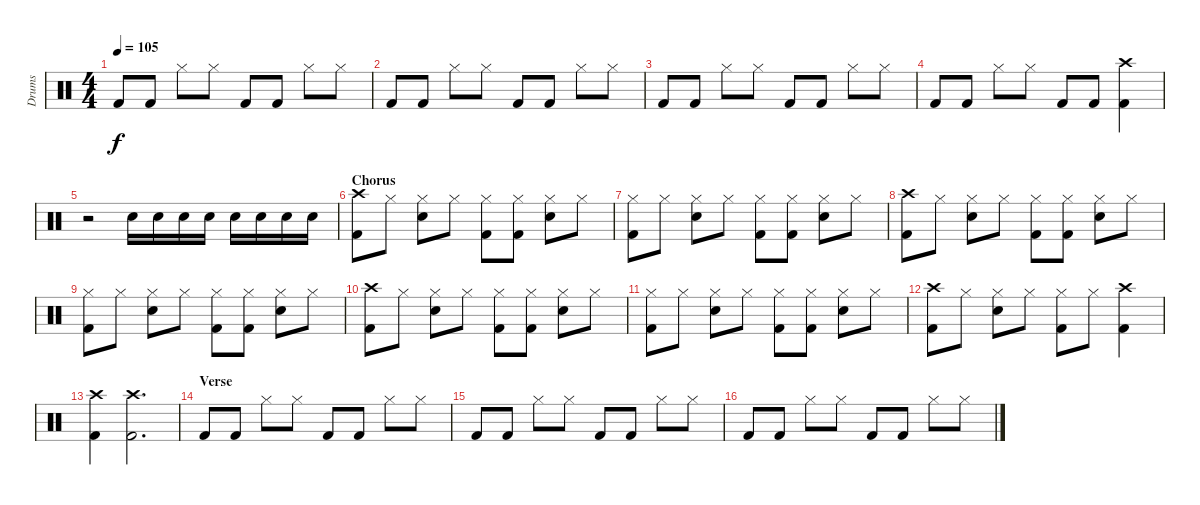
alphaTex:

\track ("Drums" "Drums") {instrument percussion}
\staff {score}
\articulation defaults
\ts (4 4)
\tempo 105
\clef neutral
\ks c "Kick (hit) 2".8{dy f} "Kick (hit) 2".8 "Hi-Hat (closed)".8 "Hi-Hat (closed)".8 "Kick (hit) 2".8 "Kick (hit) 2".8 "Hi-Hat (closed)".8 "Hi-Hat (closed)".8
|
"Kick (hit) 2".8 "Kick (hit) 2".8 "Hi-Hat (closed)".8 "Hi-Hat (closed)".8 "Kick (hit) 2".8 "Kick (hit) 2".8 "Hi-Hat (closed)".8 "Hi-Hat (closed)".8 |
"Kick (hit) 2".8 "Kick (hit) 2".8 "Hi-Hat (closed)".8 "Hi-Hat (closed)".8 "Kick (hit) 2".8 "Kick (hit) 2".8 "Hi-Hat (closed)".8 "Hi-Hat (closed)".8 |
"Kick (hit) 2".8 "Kick (hit) 2".8 "Hi-Hat (closed)".8 "Hi-Hat (closed)".8 "Kick (hit) 2".8 "Kick (hit) 2".8 ("Crash high (hit)" "Kick (hit) 2").4 |
r.2 "Snare (hit) 2".16 "Snare (hit) 2".16 "Snare (hit) 2".16 "Snare (hit) 2".16 "Snare (hit) 2".16 "Snare (hit) 2".16 "Snare (hit) 2".16 "Snare (hit) 2".16 |
\section ("" "Chorus")
("Crash high (hit)" "Kick (hit) 2").8 "Hi-Hat (closed)".8 ("Hi-Hat (closed)" "Snare (hit) 2").8 "Hi-Hat (closed)".8 ("Hi-Hat (closed)" "Kick (hit) 2").8 ("Hi-Hat (closed)" "Kick (hit) 2").8 ("Hi-Hat (closed)" "Snare (hit) 2").8 "Hi-Hat (closed)".8 |
("Hi-Hat (closed)" "Kick (hit) 2").8 "Hi-Hat (closed)".8 ("Hi-Hat (closed)" "Snare (hit) 2").8 "Hi-Hat (closed)".8 ("Hi-Hat (closed)" "Kick (hit) 2").8 ("Hi-Hat (closed)" "Kick (hit) 2").8 ("Hi-Hat (closed)" "Snare (hit) 2").8 "Hi-Hat (closed)".8 |
("Crash high (hit)" "Kick (hit) 2").8 "Hi-Hat (closed)".8 ("Hi-Hat (closed)" "Snare (hit) 2").8 "Hi-Hat (closed)".8 ("Hi-Hat (closed)" "Kick (hit) 2").8 ("Hi-Hat (closed)" "Kick (hit) 2").8 ("Hi-Hat (closed)" "Snare (hit) 2").8 "Hi-Hat (closed)".8 |
("Hi-Hat (closed)" "Kick (hit) 2").8 "Hi-Hat (closed)".8 ("Hi-Hat (closed)" "Snare (hit) 2").8 "Hi-Hat (closed)".8 ("Hi-Hat (closed)" "Kick (hit) 2").8 ("Hi-Hat (closed)" "Kick (hit) 2").8 ("Hi-Hat (closed)" "Snare (hit) 2").8 "Hi-Hat (closed)".8 |
("Crash high (hit)" "Kick (hit) 2").8 "Hi-Hat (closed)".8 ("Hi-Hat (closed)" "Snare (hit) 2").8 "Hi-Hat (closed)".8 ("Hi-Hat (closed)" "Kick (hit) 2").8 ("Hi-Hat (closed)" "Kick (hit) 2").8 ("Hi-Hat (closed)" "Snare (hit) 2").8 "Hi-Hat (closed)".8 |
("Hi-Hat (closed)" "Kick (hit) 2").8 "Hi-Hat (closed)".8 ("Hi-Hat (closed)" "Snare (hit) 2").8 "Hi-Hat (closed)".8 ("Hi-Hat (closed)" "Kick (hit) 2").8 ("Hi-Hat (closed)" "Kick (hit) 2").8 ("Hi-Hat (closed)" "Snare (hit) 2").8 "Hi-Hat (closed)".8 |
("Crash high (hit)" "Kick (hit) 2").8 "Hi-Hat (closed)".8 ("Hi-Hat (closed)" "Snare (hit) 2").8 "Hi-Hat (closed)".8 ("Hi-Hat (closed)" "Kick (hit) 2").8 "Hi-Hat (closed)".8 ("Crash high (hit)" "Kick (hit) 2").4 |
("Crash high (hit)" "Kick (hit) 2").4 ("Crash high (hit)" "Kick (hit) 2").2{d} |
\section ("" "Verse")
"Kick (hit) 2".8 "Kick (hit) 2".8 "Hi-Hat (closed)".8 "Hi-Hat (closed)".8 "Kick (hit) 2".8 "Kick (hit) 2".8 "Hi-Hat (closed)".8 "Hi-Hat (closed)".8 |
"Kick (hit) 2".8 "Kick (hit) 2".8 "Hi-Hat (closed)".8 "Hi-Hat (closed)".8 "Kick (hit) 2".8 "Kick (hit) 2".8 "Hi-Hat (closed)".8 "Hi-Hat (closed)".8 |
"Kick (hit) 2".8 "Kick (hit) 2".8 "Hi-Hat (closed)".8 "Hi-Hat (closed)".8 "Kick (hit) 2".8 "Kick (hit) 2".8 "Hi-Hat (closed)".8 "Hi-Hat (closed)".8
